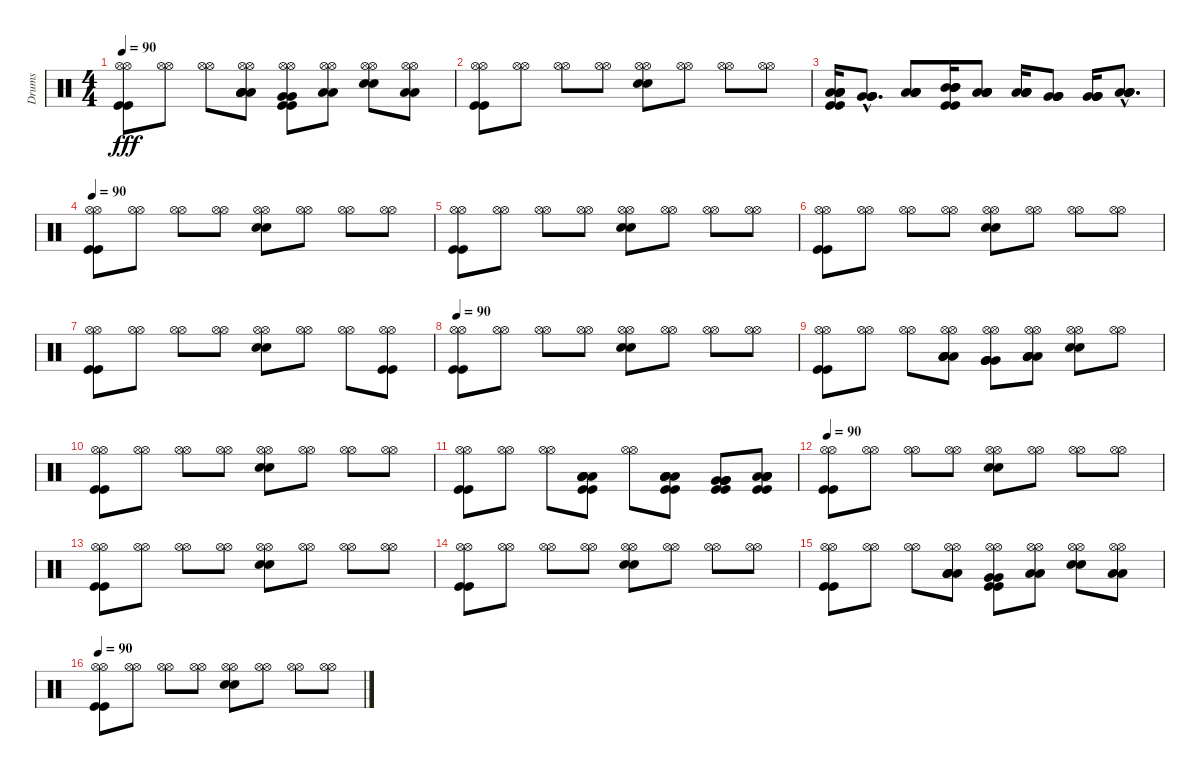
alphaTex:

\track ("Drums" "Drums") {instrument percussion}
\staff {score}
\articulation defaults
\ts (4 4)
\tempo 90
\clef neutral
\ks c
("Kick (hit)" "Hi-Hat (open)" "Hi-Hat (open)" "Kick (hit)").8{dy fff} ("Hi-Hat (open)" "Hi-Hat (open)").8 ("Hi-Hat (open)" "Hi-Hat (open)").8 ("Low Tom (hit)" "Low Tom (hit)" "Hi-Hat (open)" "Hi-Hat (open)" "Low Tom (hit)" "Low Tom (hit)").8 ("Kick (hit)" "Very Low Tom (hit)" "Hi-Hat (open)" "Hi-Hat (open)" "Very Low Tom (hit)" "Kick (hit)").8 ("Low Floor Tom (hit)" "Hi-Hat (open)" "Hi-Hat (open)" "Low Floor Tom (hit)").8 ("Electric Snare (hit)" "Hi-Hat (open)" "Hi-Hat (open)" "Electric Snare (hit)").8 ("Low Floor Tom (hit)" "Hi-Hat (open)" "Hi-Hat (open)" "Low Floor Tom (hit)").8 |
("Kick (hit)" "Hi-Hat (open)" "Hi-Hat (open)" "Kick (hit)").8 ("Hi-Hat (open)" "Hi-Hat (open)").8 ("Hi-Hat (open)" "Hi-Hat (open)").8 ("Hi-Hat (open)" "Hi-Hat (open)").8 ("Electric Snare (hit)" "Hi-Hat (open)" "Hi-Hat (open)" "Electric Snare (hit)").8 ("Hi-Hat (open)" "Hi-Hat (open)").8 ("Hi-Hat (open)" "Hi-Hat (open)").8 ("Hi-Hat (open)" "Hi-Hat (open)").8 |
("Kick (hit)" "Low Tom (hit)" "Low Tom (hit)" "Low Tom (hit)" "Low Tom (hit)" "Kick (hit)").16 ("Very Low Tom (hit)"{hac} "Very Low Tom (hit)"{hac} "Very Low Tom (hit)"{hac} "Very Low Tom (hit)"{hac}).8{d} ("Low Floor Tom (hit)" "Low Floor Tom (hit)" "Low Floor Tom (hit)" "Low Floor Tom (hit)").8 ("Kick (hit)" "Mid Tom (hit)" "Mid Tom (hit)" "Mid Tom (hit)" "Mid Tom (hit)" "Kick (hit)").16 ("Low Tom (hit)" "Low Tom (hit)" "Low Tom (hit)" "Low Tom (hit)").8 ("Low Tom (hit)" "Low Tom (hit)" "Low Tom (hit)" "Low Tom (hit)").16 ("Very Low Tom (hit)" "Very Low Tom (hit)" "Very Low Tom (hit)" "Very Low Tom (hit)").8 ("Very Low Tom (hit)" "Very Low Tom (hit)" "Very Low Tom (hit)" "Very Low Tom (hit)").16 ("Low Floor Tom (hit)"{hac} "Low Floor Tom (hit)"{hac} "Low Floor Tom (hit)"{hac} "Low Floor Tom (hit)"{hac}).8{d} |
\tempo 90
("Kick (hit)" "Hi-Hat (open)" "Hi-Hat (open)" "Kick (hit)").8 ("Hi-Hat (open)" "Hi-Hat (open)").8 ("Hi-Hat (open)" "Hi-Hat (open)").8 ("Hi-Hat (open)" "Hi-Hat (open)").8 ("Electric Snare (hit)" "Hi-Hat (open)" "Hi-Hat (open)" "Electric Snare (hit)").8 ("Hi-Hat (open)" "Hi-Hat (open)").8 ("Hi-Hat (open)" "Hi-Hat (open)").8 ("Hi-Hat (open)" "Hi-Hat (open)").8 |
("Kick (hit)" "Hi-Hat (open)" "Hi-Hat (open)" "Kick (hit)").8 ("Hi-Hat (open)" "Hi-Hat (open)").8 ("Hi-Hat (open)" "Hi-Hat (open)").8 ("Hi-Hat (open)" "Hi-Hat (open)").8 ("Electric Snare (hit)" "Hi-Hat (open)" "Hi-Hat (open)" "Electric Snare (hit)").8 ("Hi-Hat (open)" "Hi-Hat (open)").8 ("Hi-Hat (open)" "Hi-Hat (open)").8 ("Hi-Hat (open)" "Hi-Hat (open)").8 |
("Kick (hit)" "Hi-Hat (open)" "Hi-Hat (open)" "Kick (hit)").8 ("Hi-Hat (open)" "Hi-Hat (open)").8 ("Hi-Hat (open)" "Hi-Hat (open)").8 ("Hi-Hat (open)" "Hi-Hat (open)").8 ("Electric Snare (hit)" "Hi-Hat (open)" "Hi-Hat (open)" "Electric Snare (hit)").8 ("Hi-Hat (open)" "Hi-Hat (open)").8 ("Hi-Hat (open)" "Hi-Hat (open)").8 ("Hi-Hat (open)" "Hi-Hat (open)").8 |
("Kick (hit)" "Hi-Hat (open)" "Hi-Hat (open)" "Kick (hit)").8 ("Hi-Hat (open)" "Hi-Hat (open)").8 ("Hi-Hat (open)" "Hi-Hat (open)").8 ("Hi-Hat (open)" "Hi-Hat (open)").8 ("Electric Snare (hit)" "Hi-Hat (open)" "Hi-Hat (open)" "Electric Snare (hit)").8 ("Hi-Hat (open)" "Hi-Hat (open)").8 ("Hi-Hat (open)" "Hi-Hat (open)").8 ("Kick (hit)" "Hi-Hat (open)" "Hi-Hat (open)" "Kick (hit)").8 |
\tempo 90
("Kick (hit)" "Hi-Hat (open)" "Hi-Hat (open)" "Kick (hit)").8 ("Hi-Hat (open)" "Hi-Hat (open)").8 ("Hi-Hat (open)" "Hi-Hat (open)").8 ("Hi-Hat (open)" "Hi-Hat (open)").8 ("Electric Snare (hit)" "Hi-Hat (open)" "Hi-Hat (open)" "Electric Snare (hit)").8 ("Hi-Hat (open)" "Hi-Hat (open)").8 ("Hi-Hat (open)" "Hi-Hat (open)").8 ("Hi-Hat (open)" "Hi-Hat (open)").8 |
("Kick (hit)" "Hi-Hat (open)" "Hi-Hat (open)" "Kick (hit)").8 ("Hi-Hat (open)" "Hi-Hat (open)").8 ("Hi-Hat (open)" "Hi-Hat (open)").8 ("Low Tom (hit)" "Low Tom (hit)" "Hi-Hat (open)" "Hi-Hat (open)" "Low Tom (hit)" "Low Tom (hit)").8 ("Very Low Tom (hit)" "Very Low Tom (hit)" "Hi-Hat (open)" "Hi-Hat (open)" "Very Low Tom (hit)" "Very Low Tom (hit)").8 ("Low Floor Tom (hit)" "Low Floor Tom (hit)" "Hi-Hat (open)" "Hi-Hat (open)" "Low Floor Tom (hit)" "Low Floor Tom (hit)").8 ("Electric Snare (hit)" "Hi-Hat (open)" "Hi-Hat (open)" "Electric Snare (hit)").8 ("Hi-Hat (open)" "Hi-Hat (open)").8 |
("Kick (hit)" "Hi-Hat (open)" "Hi-Hat (open)" "Kick (hit)").8 ("Hi-Hat (open)" "Hi-Hat (open)").8 ("Hi-Hat (open)" "Hi-Hat (open)").8 ("Hi-Hat (open)" "Hi-Hat (open)").8 ("Electric Snare (hit)" "Hi-Hat (open)" "Hi-Hat (open)" "Electric Snare (hit)").8 ("Hi-Hat (open)" "Hi-Hat (open)").8 ("Hi-Hat (open)" "Hi-Hat (open)").8 ("Hi-Hat (open)" "Hi-Hat (open)").8 |
("Kick (hit)" "Hi-Hat (open)" "Hi-Hat (open)" "Kick (hit)").8 ("Hi-Hat (open)" "Hi-Hat (open)").8 ("Hi-Hat (open)" "Hi-Hat (open)").8 ("Kick (hit)" "Low Tom (hit)" "Low Tom (hit)" "Low Tom (hit)" "Low Tom (hit)" "Kick (hit)").8 ("Hi-Hat (open)" "Hi-Hat (open)").8 ("Kick (hit)" "Low Tom (hit)" "Low Tom (hit)" "Low Tom (hit)" "Low Tom (hit)" "Kick (hit)").8 ("Kick (hit)" "Very Low Tom (hit)" "Very Low Tom (hit)" "Very Low Tom (hit)" "Very Low Tom (hit)" "Kick (hit)").8 ("Kick (hit)" "Low Floor Tom (hit)" "Low Floor Tom (hit)" "Low Floor Tom (hit)" "Low Floor Tom (hit)" "Kick (hit)").8 |
\tempo 90
("Kick (hit)" "Hi-Hat (open)" "Hi-Hat (open)" "Kick (hit)").8 ("Hi-Hat (open)" "Hi-Hat (open)").8 ("Hi-Hat (open)" "Hi-Hat (open)").8 ("Hi-Hat (open)" "Hi-Hat (open)").8 ("Electric Snare (hit)" "Hi-Hat (open)" "Hi-Hat (open)" "Electric Snare (hit)").8 ("Hi-Hat (open)" "Hi-Hat (open)").8 ("Hi-Hat (open)" "Hi-Hat (open)").8 ("Hi-Hat (open)" "Hi-Hat (open)").8 |
("Kick (hit)" "Hi-Hat (open)" "Hi-Hat (open)" "Kick (hit)").8 ("Hi-Hat (open)" "Hi-Hat (open)").8 ("Hi-Hat (open)" "Hi-Hat (open)").8 ("Hi-Hat (open)" "Hi-Hat (open)").8 ("Electric Snare (hit)" "Hi-Hat (open)" "Hi-Hat (open)" "Electric Snare (hit)").8 ("Hi-Hat (open)" "Hi-Hat (open)").8 ("Hi-Hat (open)" "Hi-Hat (open)").8 ("Hi-Hat (open)" "Hi-Hat (open)").8 |
("Kick (hit)" "Hi-Hat (open)" "Hi-Hat (open)" "Kick (hit)").8 ("Hi-Hat (open)" "Hi-Hat (open)").8 ("Hi-Hat (open)" "Hi-Hat (open)").8 ("Hi-Hat (open)" "Hi-Hat (open)").8 ("Electric Snare (hit)" "Hi-Hat (open)" "Hi-Hat (open)" "Electric Snare (hit)").8 ("Hi-Hat (open)" "Hi-Hat (open)").8 ("Hi-Hat (open)" "Hi-Hat (open)").8 ("Hi-Hat (open)" "Hi-Hat (open)").8 |
("Kick (hit)" "Hi-Hat (open)" "Hi-Hat (open)" "Kick (hit)").8 ("Hi-Hat (open)" "Hi-Hat (open)").8 ("Hi-Hat (open)" "Hi-Hat (open)").8 ("Low Tom (hit)" "Low Tom (hit)" "Hi-Hat (open)" "Hi-Hat (open)" "Low Tom (hit)" "Low Tom (hit)").8 ("Kick (hit)" "Very Low Tom (hit)" "Hi-Hat (open)" "Hi-Hat (open)" "Very Low Tom (hit)" "Kick (hit)").8 ("Low Floor Tom (hit)" "Hi-Hat (open)" "Hi-Hat (open)" "Low Floor Tom (hit)").8 ("Electric Snare (hit)" "Hi-Hat (open)" "Hi-Hat (open)" "Electric Snare (hit)").8 ("Low Floor Tom (hit)" "Hi-Hat (open)" "Hi-Hat (open)" "Low Floor Tom (hit)").8 |
\tempo 90
("Kick (hit)" "Hi-Hat (open)" "Hi-Hat (open)" "Kick (hit)").8 ("Hi-Hat (open)" "Hi-Hat (open)").8 ("Hi-Hat (open)" "Hi-Hat (open)").8 ("Hi-Hat (open)" "Hi-Hat (open)").8 ("Electric Snare (hit)" "Hi-Hat (open)" "Hi-Hat (open)" "Electric Snare (hit)").8 ("Hi-Hat (open)" "Hi-Hat (open)").8 ("Hi-Hat (open)" "Hi-Hat (open)").8 ("Hi-Hat (open)" "Hi-Hat (open)").8
